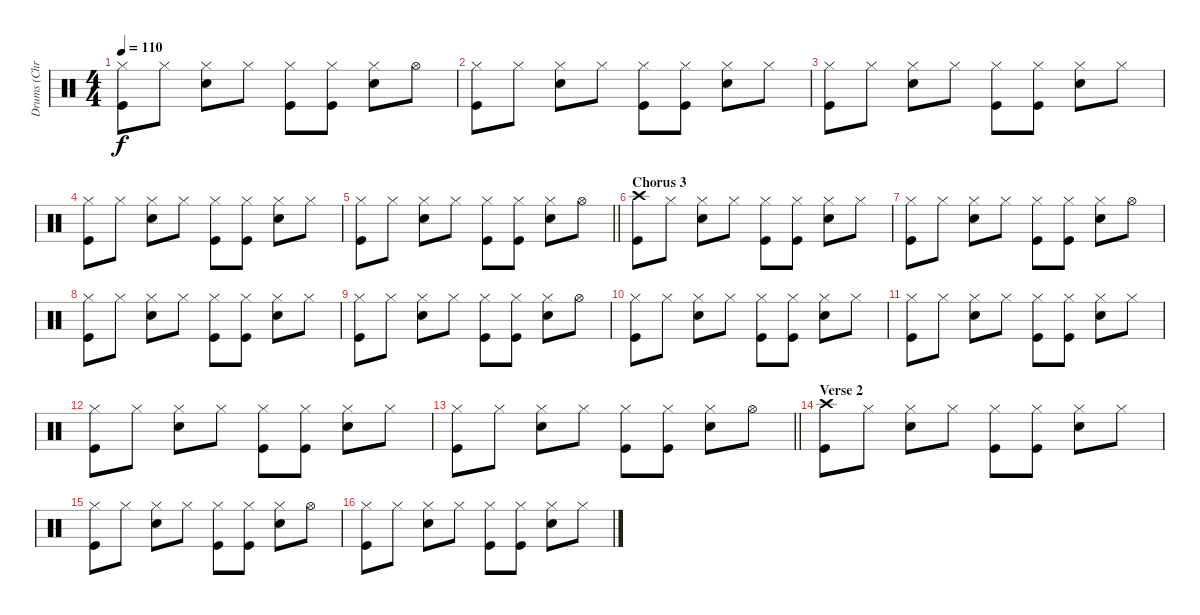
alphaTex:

\track ("Drums (Chris Frantz)" "Drums (Chr") {instrument percussion}
\staff {score}
\articulation defaults
\ts (4 4)
\tempo 110
\clef neutral
\ks c
("Hi-Hat (closed)" "Kick (hit)").8{dy f} "Hi-Hat (closed)".8 ("Hi-Hat (closed)" "Snare (hit) 2").8 "Hi-Hat (closed)".8 ("Hi-Hat (closed)" "Kick (hit)").8 ("Hi-Hat (closed)" "Kick (hit)").8 ("Hi-Hat (closed)" "Snare (hit) 2").8 "Hi-Hat (open)".8 |
("Hi-Hat (closed)" "Kick (hit)").8 "Hi-Hat (closed)".8 ("Hi-Hat (closed)" "Snare (hit) 2").8 "Hi-Hat (closed)".8 ("Hi-Hat (closed)" "Kick (hit)").8 ("Hi-Hat (closed)" "Kick (hit)").8 ("Hi-Hat (closed)" "Snare (hit) 2").8 "Hi-Hat (closed)".8 |
("Hi-Hat (closed)" "Kick (hit)").8 "Hi-Hat (closed)".8 ("Hi-Hat (closed)" "Snare (hit) 2").8 "Hi-Hat (closed)".8 ("Hi-Hat (closed)" "Kick (hit)").8 ("Hi-Hat (closed)" "Kick (hit)").8 ("Hi-Hat (closed)" "Snare (hit) 2").8 "Hi-Hat (closed)".8 |
("Hi-Hat (closed)" "Kick (hit)").8 "Hi-Hat (closed)".8 ("Hi-Hat (closed)" "Snare (hit) 2").8 "Hi-Hat (closed)".8 ("Hi-Hat (closed)" "Kick (hit)").8 ("Hi-Hat (closed)" "Kick (hit)").8 ("Hi-Hat (closed)" "Snare (hit) 2").8 "Hi-Hat (closed)".8 |
\barLineRight lightlight
("Hi-Hat (closed)" "Kick (hit)").8 "Hi-Hat (closed)".8 ("Hi-Hat (closed)" "Snare (hit) 2").8 "Hi-Hat (closed)".8 ("Hi-Hat (closed)" "Kick (hit)").8 ("Hi-Hat (closed)" "Kick (hit)").8 ("Hi-Hat (closed)" "Snare (hit) 2").8 "Hi-Hat (open)".8 |
\section ("" "Chorus 3")
("Crash high (hit)" "Kick (hit)").8 "Hi-Hat (closed)".8 ("Hi-Hat (closed)" "Snare (hit) 2").8 "Hi-Hat (closed)".8 ("Hi-Hat (closed)" "Kick (hit)").8 ("Hi-Hat (closed)" "Kick (hit)").8 ("Hi-Hat (closed)" "Snare (hit) 2").8 "Hi-Hat (closed)".8 |
("Hi-Hat (closed)" "Kick (hit)").8 "Hi-Hat (closed)".8 ("Hi-Hat (closed)" "Snare (hit) 2").8 "Hi-Hat (closed)".8 ("Hi-Hat (closed)" "Kick (hit)").8 ("Hi-Hat (closed)" "Kick (hit)").8 ("Hi-Hat (closed)" "Snare (hit) 2").8 "Hi-Hat (open)".8 |
("Hi-Hat (closed)" "Kick (hit)").8 "Hi-Hat (closed)".8 ("Hi-Hat (closed)" "Snare (hit) 2").8 "Hi-Hat (closed)".8 ("Hi-Hat (closed)" "Kick (hit)").8 ("Hi-Hat (closed)" "Kick (hit)").8 ("Hi-Hat (closed)" "Snare (hit) 2").8 "Hi-Hat (closed)".8 |
("Hi-Hat (closed)" "Kick (hit)").8 "Hi-Hat (closed)".8 ("Hi-Hat (closed)" "Snare (hit) 2").8 "Hi-Hat (closed)".8 ("Hi-Hat (closed)" "Kick (hit)").8 ("Hi-Hat (closed)" "Kick (hit)").8 ("Hi-Hat (closed)" "Snare (hit) 2").8 "Hi-Hat (open)".8 |
("Hi-Hat (closed)" "Kick (hit)").8 "Hi-Hat (closed)".8 ("Hi-Hat (closed)" "Snare (hit) 2").8 "Hi-Hat (closed)".8 ("Hi-Hat (closed)" "Kick (hit)").8 ("Hi-Hat (closed)" "Kick (hit)").8 ("Hi-Hat (closed)" "Snare (hit) 2").8 "Hi-Hat (closed)".8 |
("Hi-Hat (closed)" "Kick (hit)").8 "Hi-Hat (closed)".8 ("Hi-Hat (closed)" "Snare (hit) 2").8 "Hi-Hat (closed)".8 ("Hi-Hat (closed)" "Kick (hit)").8 ("Hi-Hat (closed)" "Kick (hit)").8 ("Hi-Hat (closed)" "Snare (hit) 2").8 "Hi-Hat (closed)".8 |
("Hi-Hat (closed)" "Kick (hit)").8 "Hi-Hat (closed)".8 ("Hi-Hat (closed)" "Snare (hit) 2").8 "Hi-Hat (closed)".8 ("Hi-Hat (closed)" "Kick (hit)").8 ("Hi-Hat (closed)" "Kick (hit)").8 ("Hi-Hat (closed)" "Snare (hit) 2").8 "Hi-Hat (closed)".8 |
\barLineRight lightlight
("Hi-Hat (closed)" "Kick (hit)").8 "Hi-Hat (closed)".8 ("Hi-Hat (closed)" "Snare (hit) 2").8 "Hi-Hat (closed)".8 ("Hi-Hat (closed)" "Kick (hit)").8 ("Hi-Hat (closed)" "Kick (hit)").8 ("Hi-Hat (closed)" "Snare (hit) 2").8 "Hi-Hat (open)".8 |
\section ("" "Verse 2")
("Crash high (hit)" "Kick (hit)").8 "Hi-Hat (closed)".8 ("Hi-Hat (closed)" "Snare (hit) 2").8 "Hi-Hat (closed)".8 ("Hi-Hat (closed)" "Kick (hit)").8 ("Hi-Hat (closed)" "Kick (hit)").8 ("Hi-Hat (closed)" "Snare (hit) 2").8 "Hi-Hat (closed)".8 |
("Hi-Hat (closed)" "Kick (hit)").8 "Hi-Hat (closed)".8 ("Hi-Hat (closed)" "Snare (hit) 2").8 "Hi-Hat (closed)".8 ("Hi-Hat (closed)" "Kick (hit)").8 ("Hi-Hat (closed)" "Kick (hit)").8 ("Hi-Hat (closed)" "Snare (hit) 2").8 "Hi-Hat (open)".8 |
("Hi-Hat (closed)" "Kick (hit)").8 "Hi-Hat (closed)".8 ("Hi-Hat (closed)" "Snare (hit) 2").8 "Hi-Hat (closed)".8 ("Hi-Hat (closed)" "Kick (hit)").8 ("Hi-Hat (closed)" "Kick (hit)").8 ("Hi-Hat (closed)" "Snare (hit) 2").8 "Hi-Hat (closed)".8
